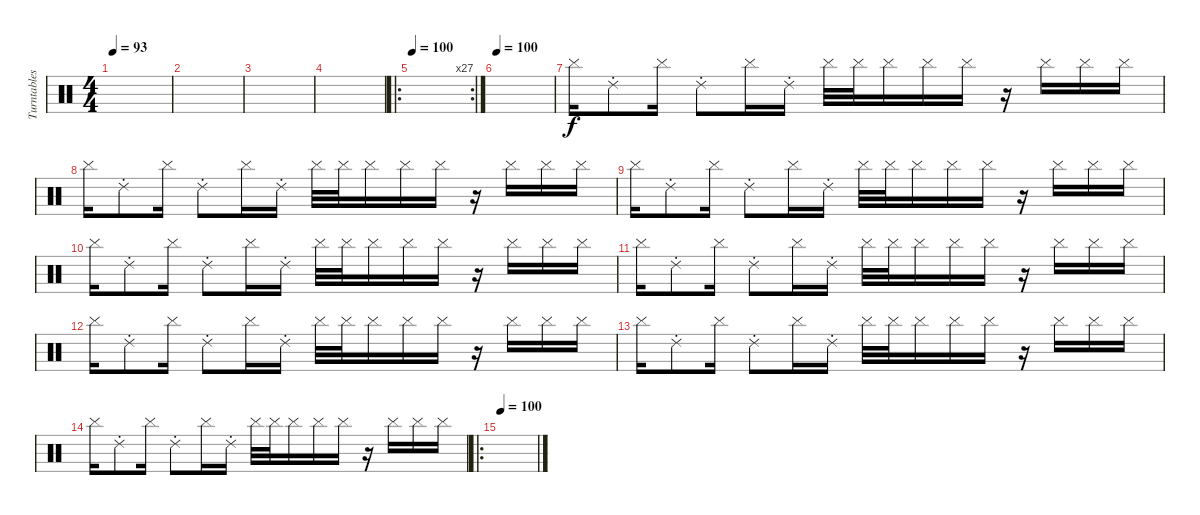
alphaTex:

\track ("Turntables" "Turntables") {instrument percussion}
\staff {score}
\articulation defaults
\ts (4 4)
\tempo 93
\clef neutral
\ks c
|
|
|
|
\ro
\rc 27
\tempo 100
|
\tempo 100
|
"Cymbal (hit)".16{dy f} "Ride (choke) 2".8 "Cymbal (hit)".16 "Ride (choke) 2".8 "Cymbal (hit)".16 "Ride (choke) 2".16 "Cymbal (hit)".32 "Cymbal (hit)".32 "Cymbal (hit)".16 "Cymbal (hit)".16 "Cymbal (hit)".16 r.16 "Cymbal (hit)".16 "Cymbal (hit)".16 "Cymbal (hit)".16 |
"Cymbal (hit)".16 "Ride (choke) 2".8 "Cymbal (hit)".16 "Ride (choke) 2".8 "Cymbal (hit)".16 "Ride (choke) 2".16 "Cymbal (hit)".32 "Cymbal (hit)".32 "Cymbal (hit)".16 "Cymbal (hit)".16 "Cymbal (hit)".16 r.16 "Cymbal (hit)".16 "Cymbal (hit)".16 "Cymbal (hit)".16 |
"Cymbal (hit)".16 "Ride (choke) 2".8 "Cymbal (hit)".16 "Ride (choke) 2".8 "Cymbal (hit)".16 "Ride (choke) 2".16 "Cymbal (hit)".32 "Cymbal (hit)".32 "Cymbal (hit)".16 "Cymbal (hit)".16 "Cymbal (hit)".16 r.16 "Cymbal (hit)".16 "Cymbal (hit)".16 "Cymbal (hit)".16 |
"Cymbal (hit)".16 "Ride (choke) 2".8 "Cymbal (hit)".16 "Ride (choke) 2".8 "Cymbal (hit)".16 "Ride (choke) 2".16 "Cymbal (hit)".32 "Cymbal (hit)".32 "Cymbal (hit)".16 "Cymbal (hit)".16 "Cymbal (hit)".16 r.16 "Cymbal (hit)".16 "Cymbal (hit)".16 "Cymbal (hit)".16 |
"Cymbal (hit)".16 "Ride (choke) 2".8 "Cymbal (hit)".16 "Ride (choke) 2".8 "Cymbal (hit)".16 "Ride (choke) 2".16 "Cymbal (hit)".32 "Cymbal (hit)".32 "Cymbal (hit)".16 "Cymbal (hit)".16 "Cymbal (hit)".16 r.16 "Cymbal (hit)".16 "Cymbal (hit)".16 "Cymbal (hit)".16 |
"Cymbal (hit)".16 "Ride (choke) 2".8 "Cymbal (hit)".16 "Ride (choke) 2".8 "Cymbal (hit)".16 "Ride (choke) 2".16 "Cymbal (hit)".32 "Cymbal (hit)".32 "Cymbal (hit)".16 "Cymbal (hit)".16 "Cymbal (hit)".16 r.16 "Cymbal (hit)".16 "Cymbal (hit)".16 "Cymbal (hit)".16 |
"Cymbal (hit)".16 "Ride (choke) 2".8 "Cymbal (hit)".16 "Ride (choke) 2".8 "Cymbal (hit)".16 "Ride (choke) 2".16 "Cymbal (hit)".32 "Cymbal (hit)".32 "Cymbal (hit)".16 "Cymbal (hit)".16 "Cymbal (hit)".16 r.16 "Cymbal (hit)".16 "Cymbal (hit)".16 "Cymbal (hit)".16 |
"Cymbal (hit)".16 "Ride (choke) 2".8 "Cymbal (hit)".16 "Ride (choke) 2".8 "Cymbal (hit)".16 "Ride (choke) 2".16 "Cymbal (hit)".32 "Cymbal (hit)".32 "Cymbal (hit)".16 "Cymbal (hit)".16 "Cymbal (hit)".16 r.16 "Cymbal (hit)".16 "Cymbal (hit)".16 "Cymbal (hit)".16 |
\ro
\tempo 100
